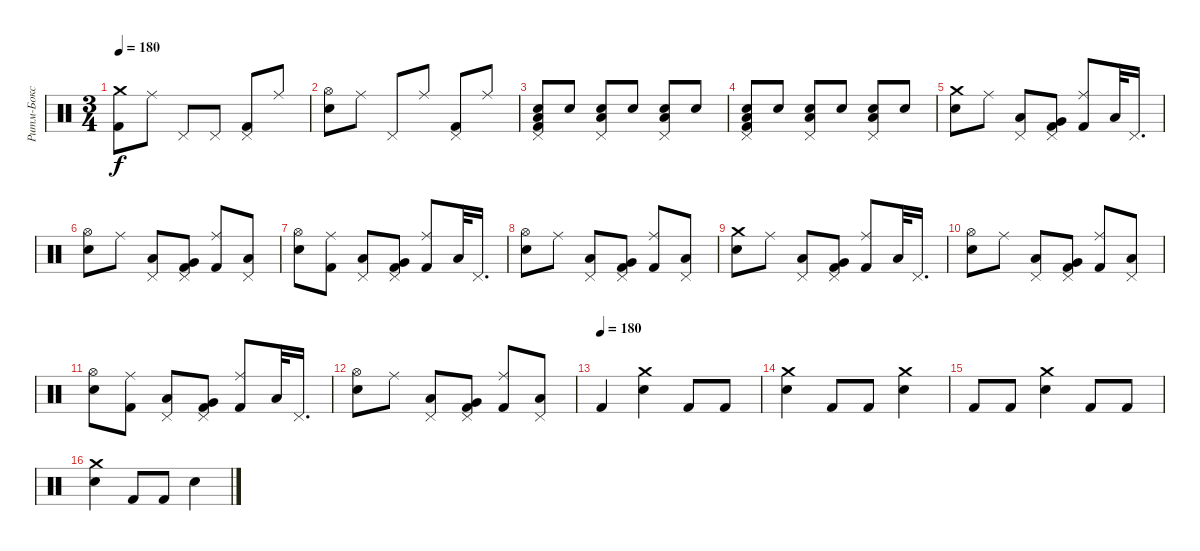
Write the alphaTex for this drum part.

\track ("Ритм-Бокс" "Ритм-Бокс") {instrument percussion}
\staff {score}
\articulation defaults
\ts (3 4)
\tempo 180
\clef neutral
\ks c
("Crash medium (hit)" "Kick (hit) 2").8{dy f} "Ride (middle)".8 "Pedal Hi-Hat (hit)".8 "Pedal Hi-Hat (hit)".8 ("Pedal Hi-Hat (hit)" "Kick (hit) 2").8 "Ride (middle)".8 |
("Hi-Hat (open)" "Snare (hit) 2").8 "Ride (middle)".8 "Pedal Hi-Hat (hit)".8 "Ride (middle)".8 ("Pedal Hi-Hat (hit)" "Kick (hit) 2").8 "Ride (middle)".8 |
("Pedal Hi-Hat (hit)" "Snare (hit) 2" "Low Floor Tom (hit)" "Kick (hit) 2").8 "Snare (hit) 2".8 ("Pedal Hi-Hat (hit)" "Snare (hit) 2" "Low Floor Tom (hit)").8 "Snare (hit) 2".8 ("Pedal Hi-Hat (hit)" "Snare (hit) 2" "Low Floor Tom (hit)").8 "Snare (hit) 2".8 |
("Pedal Hi-Hat (hit)" "Snare (hit) 2" "Low Floor Tom (hit)" "Kick (hit) 2").8 "Snare (hit) 2".8 ("Pedal Hi-Hat (hit)" "Snare (hit) 2" "Low Floor Tom (hit)").8 "Snare (hit) 2".8 ("Pedal Hi-Hat (hit)" "Snare (hit) 2" "Low Floor Tom (hit)").8 "Snare (hit) 2".8 |
("Crash medium (hit)" "Snare (hit) 2").8 "Ride (middle)".8 ("Pedal Hi-Hat (hit)" "Low Floor Tom (hit)").8 ("Pedal Hi-Hat (hit)" "Very Low Tom (hit)" "Kick (hit) 2").8 ("Ride (middle)" "Kick (hit) 2").8 "Low Floor Tom (hit)".32 "Pedal Hi-Hat (hit)".16{d} |
("Hi-Hat (open)" "Snare (hit) 2").8 "Ride (middle)".8 ("Pedal Hi-Hat (hit)" "Low Floor Tom (hit)").8 ("Pedal Hi-Hat (hit)" "Very Low Tom (hit)" "Kick (hit) 2").8 ("Ride (middle)" "Kick (hit) 2").8 ("Pedal Hi-Hat (hit)" "Low Floor Tom (hit)").8 |
("Hi-Hat (open)" "Snare (hit) 2").8 ("Ride (middle)" "Kick (hit) 2").8 ("Pedal Hi-Hat (hit)" "Low Floor Tom (hit)").8 ("Pedal Hi-Hat (hit)" "Very Low Tom (hit)" "Kick (hit) 2").8 ("Ride (middle)" "Kick (hit) 2").8 "Low Floor Tom (hit)".32 "Pedal Hi-Hat (hit)".16{d} |
("Hi-Hat (open)" "Snare (hit) 2").8 "Ride (middle)".8 ("Pedal Hi-Hat (hit)" "Low Floor Tom (hit)").8 ("Pedal Hi-Hat (hit)" "Very Low Tom (hit)" "Kick (hit) 2").8 ("Ride (middle)" "Kick (hit) 2").8 ("Pedal Hi-Hat (hit)" "Low Floor Tom (hit)").8 |
("Crash medium (hit)" "Snare (hit) 2").8 "Ride (middle)".8 ("Pedal Hi-Hat (hit)" "Low Floor Tom (hit)").8 ("Pedal Hi-Hat (hit)" "Very Low Tom (hit)" "Kick (hit) 2").8 ("Ride (middle)" "Kick (hit) 2").8 "Low Floor Tom (hit)".32 "Pedal Hi-Hat (hit)".16{d} |
("Hi-Hat (open)" "Snare (hit) 2").8 "Ride (middle)".8 ("Pedal Hi-Hat (hit)" "Low Floor Tom (hit)").8 ("Pedal Hi-Hat (hit)" "Very Low Tom (hit)" "Kick (hit) 2").8 ("Ride (middle)" "Kick (hit) 2").8 ("Pedal Hi-Hat (hit)" "Low Floor Tom (hit)").8 |
("Hi-Hat (open)" "Snare (hit) 2").8 ("Ride (middle)" "Kick (hit) 2").8 ("Pedal Hi-Hat (hit)" "Low Floor Tom (hit)").8 ("Pedal Hi-Hat (hit)" "Very Low Tom (hit)" "Kick (hit) 2").8 ("Ride (middle)" "Kick (hit) 2").8 "Low Floor Tom (hit)".32 "Pedal Hi-Hat (hit)".16{d} |
("Hi-Hat (open)" "Snare (hit) 2").8 "Ride (middle)".8 ("Pedal Hi-Hat (hit)" "Low Floor Tom (hit)").8 ("Pedal Hi-Hat (hit)" "Very Low Tom (hit)" "Kick (hit) 2").8 ("Ride (middle)" "Kick (hit) 2").8 ("Pedal Hi-Hat (hit)" "Low Floor Tom (hit)").8 |
\tempo (180)
"Kick (hit) 2".4 ("Crash medium (hit)" "Snare (hit) 2").4 "Kick (hit) 2".8 "Kick (hit) 2".8 |
("Crash medium (hit)" "Snare (hit) 2").4 "Kick (hit) 2".8 "Kick (hit) 2".8 ("Crash medium (hit)" "Snare (hit) 2").4 |
"Kick (hit) 2".8 "Kick (hit) 2".8 ("Crash medium (hit)" "Snare (hit) 2").4 "Kick (hit) 2".8 "Kick (hit) 2".8 |
("Crash medium (hit)" "Snare (hit) 2").4 "Kick (hit) 2".8 "Kick (hit) 2".8 "Snare (hit) 2".4
